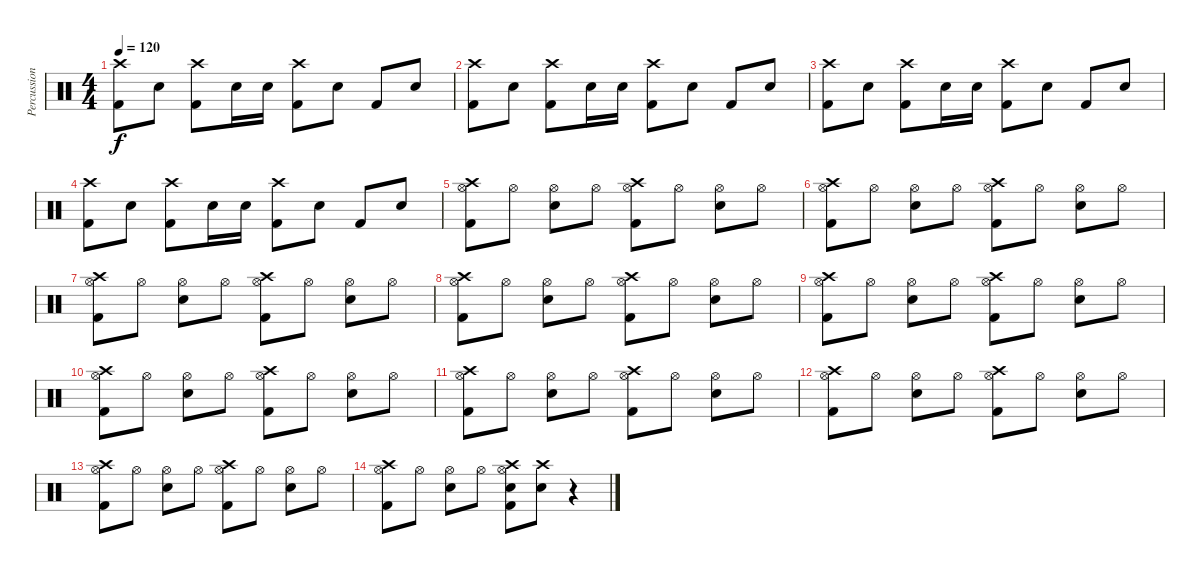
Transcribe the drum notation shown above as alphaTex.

\track ("Percussion" "Percussion") {instrument percussion}
\staff {score}
\articulation defaults
\ts (4 4)
\tempo 120
\clef neutral
\ks c
("Crash high (hit)" "Kick (hit) 2").8{dy f} "Snare (hit) 2".8 ("Crash high (hit)" "Kick (hit) 2").8 "Snare (hit) 2".16 "Snare (hit) 2".16 ("Crash high (hit)" "Kick (hit) 2").8 "Snare (hit) 2".8 "Kick (hit) 2".8 "Snare (hit) 2".8 |
("Crash high (hit)" "Kick (hit) 2").8 "Snare (hit) 2".8 ("Crash high (hit)" "Kick (hit) 2").8 "Snare (hit) 2".16 "Snare (hit) 2".16 ("Crash high (hit)" "Kick (hit) 2").8 "Snare (hit) 2".8 "Kick (hit) 2".8 "Snare (hit) 2".8 |
("Crash high (hit)" "Kick (hit) 2").8 "Snare (hit) 2".8 ("Crash high (hit)" "Kick (hit) 2").8 "Snare (hit) 2".16 "Snare (hit) 2".16 ("Crash high (hit)" "Kick (hit) 2").8 "Snare (hit) 2".8 "Kick (hit) 2".8 "Snare (hit) 2".8 |
("Crash high (hit)" "Kick (hit) 2").8 "Snare (hit) 2".8 ("Crash high (hit)" "Kick (hit) 2").8 "Snare (hit) 2".16 "Snare (hit) 2".16 ("Crash high (hit)" "Kick (hit) 2").8 "Snare (hit) 2".8 "Kick (hit) 2".8 "Snare (hit) 2".8 |
("Crash high (hit)" "Hi-Hat (open)" "Kick (hit) 2").8 "Hi-Hat (open)".8 ("Hi-Hat (open)" "Snare (hit) 2").8 "Hi-Hat (open)".8 ("Crash high (hit)" "Hi-Hat (open)" "Kick (hit) 2").8 "Hi-Hat (open)".8 ("Hi-Hat (open)" "Snare (hit) 2").8 "Hi-Hat (open)".8 |
("Crash high (hit)" "Hi-Hat (open)" "Kick (hit) 2").8 "Hi-Hat (open)".8 ("Hi-Hat (open)" "Snare (hit) 2").8 "Hi-Hat (open)".8 ("Crash high (hit)" "Hi-Hat (open)" "Kick (hit) 2").8 "Hi-Hat (open)".8 ("Hi-Hat (open)" "Snare (hit) 2").8 "Hi-Hat (open)".8 |
("Crash high (hit)" "Hi-Hat (open)" "Kick (hit) 2").8 "Hi-Hat (open)".8 ("Hi-Hat (open)" "Snare (hit) 2").8 "Hi-Hat (open)".8 ("Crash high (hit)" "Hi-Hat (open)" "Kick (hit) 2").8 "Hi-Hat (open)".8 ("Hi-Hat (open)" "Snare (hit) 2").8 "Hi-Hat (open)".8 |
("Crash high (hit)" "Hi-Hat (open)" "Kick (hit) 2").8 "Hi-Hat (open)".8 ("Hi-Hat (open)" "Snare (hit) 2").8 "Hi-Hat (open)".8 ("Crash high (hit)" "Hi-Hat (open)" "Kick (hit) 2").8 "Hi-Hat (open)".8 ("Hi-Hat (open)" "Snare (hit) 2").8 "Hi-Hat (open)".8 |
("Crash high (hit)" "Hi-Hat (open)" "Kick (hit) 2").8 "Hi-Hat (open)".8 ("Hi-Hat (open)" "Snare (hit) 2").8 "Hi-Hat (open)".8 ("Crash high (hit)" "Hi-Hat (open)" "Kick (hit) 2").8 "Hi-Hat (open)".8 ("Hi-Hat (open)" "Snare (hit) 2").8 "Hi-Hat (open)".8 |
("Crash high (hit)" "Hi-Hat (open)" "Kick (hit) 2").8 "Hi-Hat (open)".8 ("Hi-Hat (open)" "Snare (hit) 2").8 "Hi-Hat (open)".8 ("Crash high (hit)" "Hi-Hat (open)" "Kick (hit) 2").8 "Hi-Hat (open)".8 ("Hi-Hat (open)" "Snare (hit) 2").8 "Hi-Hat (open)".8 |
("Crash high (hit)" "Hi-Hat (open)" "Kick (hit) 2").8 "Hi-Hat (open)".8 ("Hi-Hat (open)" "Snare (hit) 2").8 "Hi-Hat (open)".8 ("Crash high (hit)" "Hi-Hat (open)" "Kick (hit) 2").8 "Hi-Hat (open)".8 ("Hi-Hat (open)" "Snare (hit) 2").8 "Hi-Hat (open)".8 |
("Crash high (hit)" "Hi-Hat (open)" "Kick (hit) 2").8 "Hi-Hat (open)".8 ("Hi-Hat (open)" "Snare (hit) 2").8 "Hi-Hat (open)".8 ("Crash high (hit)" "Hi-Hat (open)" "Kick (hit) 2").8 "Hi-Hat (open)".8 ("Hi-Hat (open)" "Snare (hit) 2").8 "Hi-Hat (open)".8 |
("Crash high (hit)" "Hi-Hat (open)" "Kick (hit) 2").8 "Hi-Hat (open)".8 ("Hi-Hat (open)" "Snare (hit) 2").8 "Hi-Hat (open)".8 ("Crash high (hit)" "Hi-Hat (open)" "Kick (hit) 2").8 "Hi-Hat (open)".8 ("Hi-Hat (open)" "Snare (hit) 2").8 "Hi-Hat (open)".8 |
("Crash high (hit)" "Hi-Hat (open)" "Kick (hit) 2").8 "Hi-Hat (open)".8 ("Hi-Hat (open)" "Snare (hit) 2").8 "Hi-Hat (open)".8 ("Crash high (hit)" "Hi-Hat (open)" "Snare (hit) 2" "Kick (hit) 2").8 ("Crash high (hit)" "Snare (hit) 2").8 r.4
